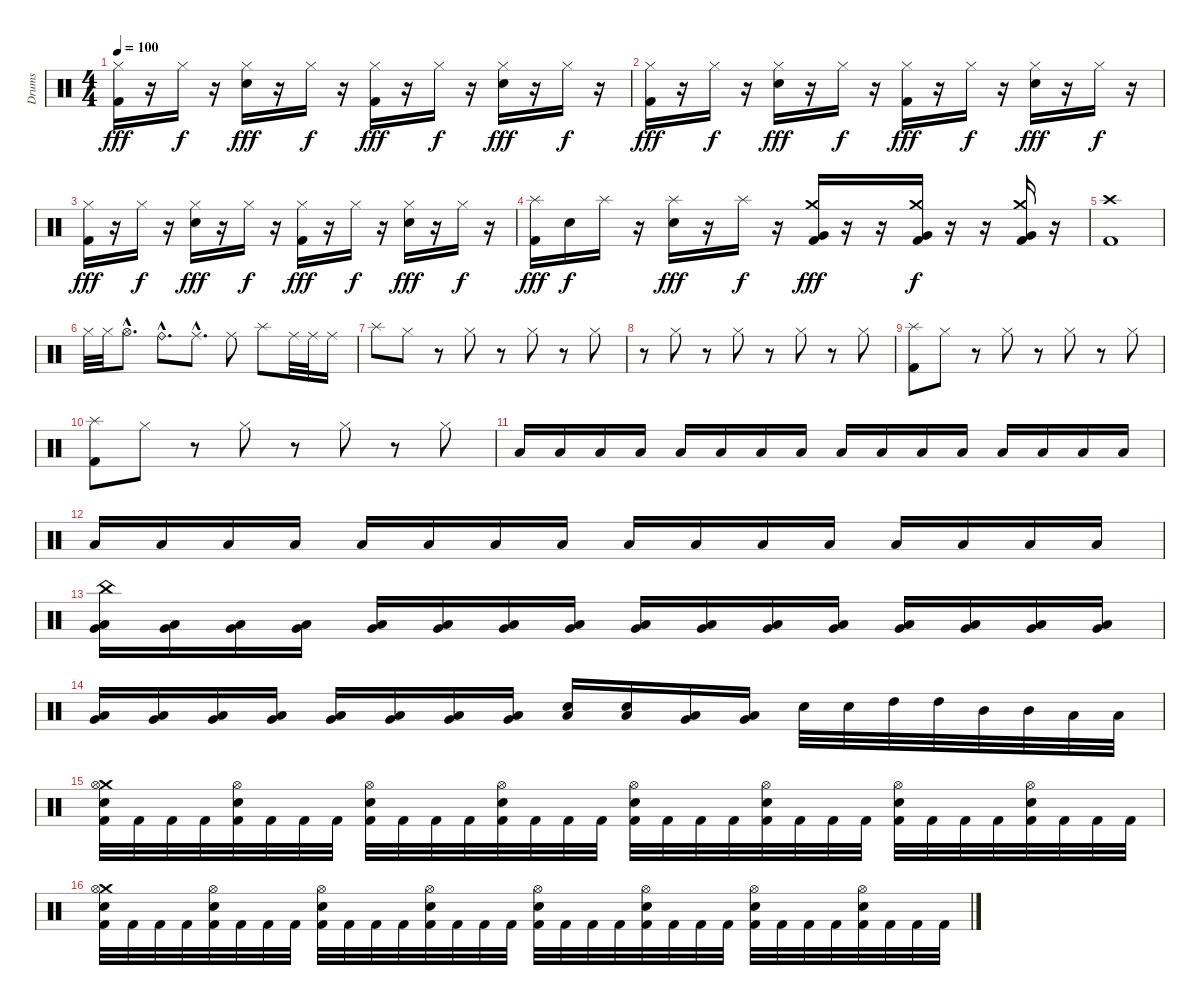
\track ("Drums" "Drums") {instrument percussion}
\staff {score}
\articulation defaults
\ts (4 4)
\tempo 100
\clef neutral
\ks c
("Hi-Hat (closed)" "Kick (hit) 2").16{dy fff} r.16 "Hi-Hat (closed)".16{dy f} r.16 ("Hi-Hat (closed)" "Electric Snare (hit)").16{dy fff} r.16 "Hi-Hat (closed)".16{dy f} r.16 ("Hi-Hat (closed)" "Kick (hit) 2").16{dy fff} r.16 "Hi-Hat (closed)".16{dy f} r.16 ("Hi-Hat (closed)" "Electric Snare (hit)").16{dy fff} r.16 "Hi-Hat (closed)".16{dy f} r.16 |
("Hi-Hat (closed)" "Kick (hit) 2").16{dy fff} r.16 "Hi-Hat (closed)".16{dy f} r.16 ("Hi-Hat (closed)" "Electric Snare (hit)").16{dy fff} r.16 "Hi-Hat (closed)".16{dy f} r.16 ("Hi-Hat (closed)" "Kick (hit) 2").16{dy fff} r.16 "Hi-Hat (closed)".16{dy f} r.16 ("Hi-Hat (closed)" "Electric Snare (hit)").16{dy fff} r.16 "Hi-Hat (closed)".16{dy f} r.16 |
("Hi-Hat (closed)" "Kick (hit) 2").16{dy fff} r.16 "Hi-Hat (closed)".16{dy f} r.16 ("Hi-Hat (closed)" "Electric Snare (hit)").16{dy fff} r.16 "Hi-Hat (closed)".16{dy f} r.16 ("Hi-Hat (closed)" "Kick (hit) 2").16{dy fff} r.16 "Hi-Hat (closed)".16{dy f} r.16 ("Hi-Hat (closed)" "Electric Snare (hit)").16{dy fff} r.16 "Hi-Hat (closed)".16{dy f} r.16 |
("Splash (hit)" "Kick (hit) 2").16{dy fff} "Electric Snare (hit)".16{dy f} "Splash (hit)".16 r.16 ("Splash (hit)" "Electric Snare (hit)").16{dy fff} r.16 "Splash (hit)".16{dy f} r.16 ("Crash medium (hit)" "Very Low Tom (hit)" "Kick (hit) 2").16{dy fff} r.16 r.16 ("Crash medium (hit)" "Very Low Tom (hit)" "Kick (hit) 2").16{dy f} r.16 r.16 ("Crash medium (hit)" "Very Low Tom (hit)" "Kick (hit) 2").16 r.16 |
("Crash high (hit)" "Kick (hit) 2").1 |
"Hi-Hat (closed)".32 "Hi-Hat (closed)".32 "Hi-Hat (open)"{hac}.8{d} "Ride (bell)"{hac}.8{d} "Ride (middle)"{hac}.8{d} "Ride (middle)".8 "Splash (hit)".8 "Ride (middle)".32 "Ride (middle)".32 "Ride (middle)".16 |
"Splash (hit)".8 "Hi-Hat (closed)".8 r.8 "Hi-Hat (closed)".8 r.8 "Hi-Hat (closed)".8 r.8 "Hi-Hat (closed)".8 |
r.8 "Hi-Hat (closed)".8 r.8 "Hi-Hat (closed)".8 r.8 "Hi-Hat (closed)".8 r.8 "Hi-Hat (closed)".8 |
("Splash (hit)" "Kick (hit) 2").8 "Hi-Hat (closed)".8 r.8 "Hi-Hat (closed)".8 r.8 "Hi-Hat (closed)".8 r.8 "Hi-Hat (closed)".8 |
("Splash (hit)" "Kick (hit) 2").8 "Hi-Hat (closed)".8 r.8 "Hi-Hat (closed)".8 r.8 "Hi-Hat (closed)".8 r.8 "Hi-Hat (closed)".8{volume 10} |
"Low Floor Tom (hit)".16{volume 15} "Low Floor Tom (hit)".16 "Low Floor Tom (hit)".16 "Low Floor Tom (hit)".16 "Low Floor Tom (hit)".16 "Low Floor Tom (hit)".16 "Low Floor Tom (hit)".16 "Low Floor Tom (hit)".16 "Low Floor Tom (hit)".16 "Low Floor Tom (hit)".16 "Low Floor Tom (hit)".16 "Low Floor Tom (hit)".16 "Low Floor Tom (hit)".16 "Low Floor Tom (hit)".16 "Low Floor Tom (hit)".16 "Low Floor Tom (hit)".16 |
"Low Floor Tom (hit)".16{volume 15} "Low Floor Tom (hit)".16 "Low Floor Tom (hit)".16 "Low Floor Tom (hit)".16 "Low Floor Tom (hit)".16 "Low Floor Tom (hit)".16 "Low Floor Tom (hit)".16 "Low Floor Tom (hit)".16 "Low Floor Tom (hit)".16 "Low Floor Tom (hit)".16 "Low Floor Tom (hit)".16 "Low Floor Tom (hit)".16 "Low Floor Tom (hit)".16 "Low Floor Tom (hit)".16 "Low Floor Tom (hit)".16 "Low Floor Tom (hit)".16 |
("China (hit)" "Low Floor Tom (hit)" "Very Low Tom (hit)").16{volume 15} ("Low Floor Tom (hit)" "Very Low Tom (hit)").16 ("Low Floor Tom (hit)" "Very Low Tom (hit)").16 ("Low Floor Tom (hit)" "Very Low Tom (hit)").16 ("Low Floor Tom (hit)" "Very Low Tom (hit)").16 ("Low Floor Tom (hit)" "Very Low Tom (hit)").16 ("Low Floor Tom (hit)" "Very Low Tom (hit)").16 ("Low Floor Tom (hit)" "Very Low Tom (hit)").16 ("Low Floor Tom (hit)" "Very Low Tom (hit)").16 ("Low Floor Tom (hit)" "Very Low Tom (hit)").16 ("Low Floor Tom (hit)" "Very Low Tom (hit)").16 ("Low Floor Tom (hit)" "Very Low Tom (hit)").16 ("Low Floor Tom (hit)" "Very Low Tom (hit)").16 ("Low Floor Tom (hit)" "Very Low Tom (hit)").16 ("Low Floor Tom (hit)" "Very Low Tom (hit)").16 ("Low Floor Tom (hit)" "Very Low Tom (hit)").16 |
("Low Floor Tom (hit)" "Very Low Tom (hit)").16{volume 15} ("Low Floor Tom (hit)" "Very Low Tom (hit)").16 ("Low Floor Tom (hit)" "Very Low Tom (hit)").16 ("Low Floor Tom (hit)" "Very Low Tom (hit)").16 ("Low Floor Tom (hit)" "Very Low Tom (hit)").16 ("Low Floor Tom (hit)" "Very Low Tom (hit)").16 ("Low Floor Tom (hit)" "Very Low Tom (hit)").16 ("Low Floor Tom (hit)" "Very Low Tom (hit)").16 ("Low Floor Tom (hit)" "Electric Snare (hit)").16 ("Low Floor Tom (hit)" "Electric Snare (hit)").16 ("Low Floor Tom (hit)" "Very Low Tom (hit)").16 ("Low Floor Tom (hit)" "Very Low Tom (hit)").16 "Electric Snare (hit)".32 "Electric Snare (hit)".32 "High Tom (hit)".32 "High Tom (hit)".32 "Mid Tom (hit)".32 "Mid Tom (hit)".32 "Low Tom (hit)".32 "Low Tom (hit)".32 |
("Crash medium (hit)" "Hi-Hat (open)" "Electric Snare (hit)" "Kick (hit) 2").32 "Kick (hit) 2".32 "Kick (hit) 2".32 "Kick (hit) 2".32 ("Hi-Hat (open)" "Electric Snare (hit)" "Kick (hit) 2").32 "Kick (hit) 2".32 "Kick (hit) 2".32 "Kick (hit) 2".32 ("Hi-Hat (open)" "Electric Snare (hit)" "Kick (hit) 2").32 "Kick (hit) 2".32 "Kick (hit) 2".32 "Kick (hit) 2".32 ("Hi-Hat (open)" "Electric Snare (hit)" "Kick (hit) 2").32 "Kick (hit) 2".32 "Kick (hit) 2".32 "Kick (hit) 2".32 ("Hi-Hat (open)" "Electric Snare (hit)" "Kick (hit) 2").32 "Kick (hit) 2".32 "Kick (hit) 2".32 "Kick (hit) 2".32 ("Hi-Hat (open)" "Electric Snare (hit)" "Kick (hit) 2").32 "Kick (hit) 2".32 "Kick (hit) 2".32 "Kick (hit) 2".32 ("Hi-Hat (open)" "Electric Snare (hit)" "Kick (hit) 2").32 "Kick (hit) 2".32 "Kick (hit) 2".32 "Kick (hit) 2".32 ("Electric Snare (hit)" "Hi-Hat (open)" "Kick (hit) 2").32 "Kick (hit) 2".32 "Kick (hit) 2".32 "Kick (hit) 2".32 |
("Crash medium (hit)" "Hi-Hat (open)" "Electric Snare (hit)" "Kick (hit) 2").32 "Kick (hit) 2".32 "Kick (hit) 2".32 "Kick (hit) 2".32 ("Hi-Hat (open)" "Electric Snare (hit)" "Kick (hit) 2").32 "Kick (hit) 2".32 "Kick (hit) 2".32 "Kick (hit) 2".32 ("Hi-Hat (open)" "Electric Snare (hit)" "Kick (hit) 2").32 "Kick (hit) 2".32 "Kick (hit) 2".32 "Kick (hit) 2".32 ("Hi-Hat (open)" "Electric Snare (hit)" "Kick (hit) 2").32 "Kick (hit) 2".32 "Kick (hit) 2".32 "Kick (hit) 2".32 ("Hi-Hat (open)" "Electric Snare (hit)" "Kick (hit) 2").32 "Kick (hit) 2".32 "Kick (hit) 2".32 "Kick (hit) 2".32 ("Hi-Hat (open)" "Electric Snare (hit)" "Kick (hit) 2").32 "Kick (hit) 2".32 "Kick (hit) 2".32 "Kick (hit) 2".32 ("Hi-Hat (open)" "Electric Snare (hit)" "Kick (hit) 2").32 "Kick (hit) 2".32 "Kick (hit) 2".32 "Kick (hit) 2".32 ("Electric Snare (hit)" "Hi-Hat (open)" "Kick (hit) 2").32 "Kick (hit) 2".32 "Kick (hit) 2".32 "Kick (hit) 2".32
